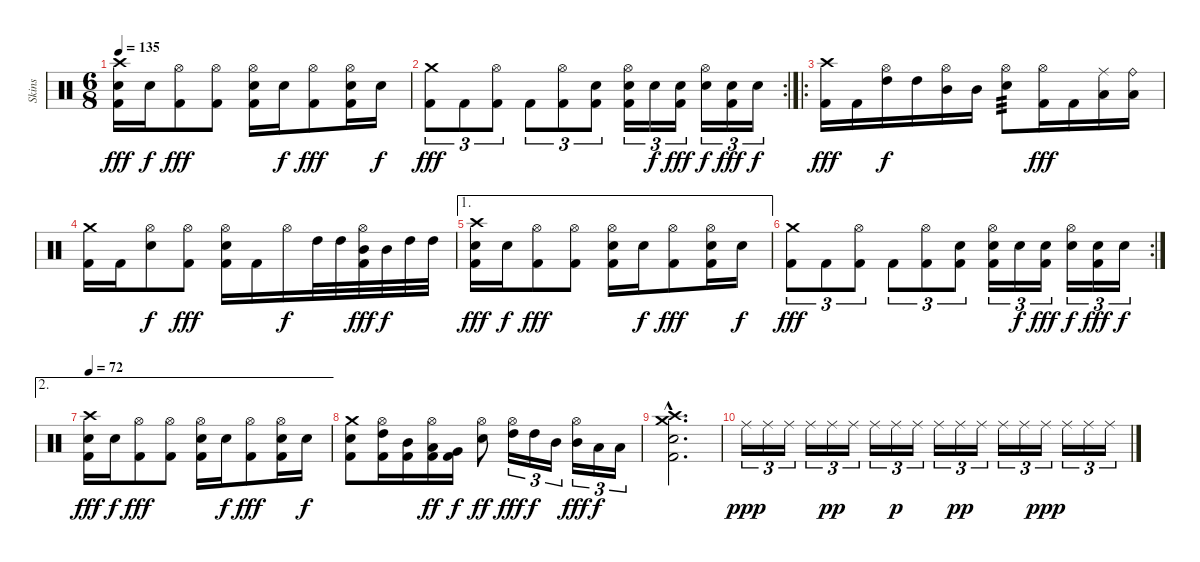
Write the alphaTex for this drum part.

\track ("Skins" "Skins") {instrument percussion}
\staff {score}
\articulation defaults
\ts (6 8)
\tempo 135
\clef neutral
\ks c
("Crash high (hit)" "Snare (hit) 2" "Kick (hit) 2").16{dy fff} "Snare (hit) 2".16{dy f} ("Hi-Hat (open)" "Kick (hit) 2").8{dy fff} ("Hi-Hat (open)" "Kick (hit) 2").8 ("Hi-Hat (open)" "Snare (hit) 2" "Kick (hit) 2").16 "Snare (hit) 2".16{dy f} ("Hi-Hat (open)" "Kick (hit) 2").8{dy fff} ("Hi-Hat (open)" "Snare (hit) 2" "Kick (hit) 2").16 "Snare (hit) 2".16{dy f} |
\rc 2
("Crash medium (hit)" "Kick (hit) 2").8{tu (3 2) dy fff} "Kick (hit) 2".8{tu (3 2)} ("Hi-Hat (open)" "Kick (hit) 2").8{tu (3 2)} "Kick (hit) 2".8{tu (3 2)} ("Hi-Hat (open)" "Kick (hit) 2").8{tu (3 2)} ("Snare (hit) 2" "Kick (hit) 2").8{tu (3 2)} ("Hi-Hat (open)" "Snare (hit) 2" "Kick (hit) 2").16{tu (3 2)} "Snare (hit) 2".16{tu (3 2) dy f} ("Snare (hit) 2" "Kick (hit) 2").16{tu (3 2) dy fff} ("Hi-Hat (open)" "Snare (hit) 2").16{tu (3 2) dy f} ("Snare (hit) 2" "Kick (hit) 2").16{tu (3 2) dy fff} "Snare (hit) 2".16{tu (3 2) dy f} |
\ro
("Crash high (hit)" "Kick (hit) 2").16{dy fff} "Kick (hit) 2".16 ("Hi-Hat (open)" "High Tom (hit)").16{dy f} "High Tom (hit)".16 ("Hi-Hat (open)" "Mid Tom (hit)").16 "Mid Tom (hit)".16 ("Hi-Hat (open)" "Snare (hit) 2").8{tp 3} ("Hi-Hat (open)" "Kick (hit) 2").16{dy fff} "Kick (hit) 2".16 ("Ride (middle)" "Low Tom (hit)").16 ("Ride (bell)" "Low Tom (hit)").16 |
("Crash medium (hit)" "Kick (hit) 2").16 "Kick (hit) 2".16 ("Hi-Hat (open)" "Snare (hit) 2").8{dy f} ("Hi-Hat (open)" "Kick (hit) 2").8{dy fff} ("Hi-Hat (open)" "Snare (hit) 2" "Kick (hit) 2").16 "Kick (hit) 2".16 "Hi-Hat (open)".16{dy f} "High Tom (hit)".32 "High Tom (hit)".32 ("Hi-Hat (open)" "Mid Tom (hit)" "Kick (hit) 2").32{dy fff} "Mid Tom (hit)".32{dy f} "High Tom (hit)".32 "High Tom (hit)".32 |
\ae 1
("Crash high (hit)" "Snare (hit) 2" "Kick (hit) 2").16{dy fff} "Snare (hit) 2".16{dy f} ("Hi-Hat (open)" "Kick (hit) 2").8{dy fff} ("Hi-Hat (open)" "Kick (hit) 2").8 ("Hi-Hat (open)" "Snare (hit) 2" "Kick (hit) 2").16 "Snare (hit) 2".16{dy f} ("Hi-Hat (open)" "Kick (hit) 2").8{dy fff} ("Hi-Hat (open)" "Snare (hit) 2" "Kick (hit) 2").16 "Snare (hit) 2".16{dy f} |
\rc 2
("Crash medium (hit)" "Kick (hit) 2").8{tu (3 2) dy fff} "Kick (hit) 2".8{tu (3 2)} ("Hi-Hat (open)" "Kick (hit) 2").8{tu (3 2)} "Kick (hit) 2".8{tu (3 2)} ("Hi-Hat (open)" "Kick (hit) 2").8{tu (3 2)} ("Snare (hit) 2" "Kick (hit) 2").8{tu (3 2)} ("Hi-Hat (open)" "Snare (hit) 2" "Kick (hit) 2").16{tu (3 2)} "Snare (hit) 2".16{tu (3 2) dy f} ("Snare (hit) 2" "Kick (hit) 2").16{tu (3 2) dy fff} ("Hi-Hat (open)" "Snare (hit) 2").16{tu (3 2) dy f} ("Snare (hit) 2" "Kick (hit) 2").16{tu (3 2) dy fff} "Snare (hit) 2".16{tu (3 2) dy f} |
\ae 2
\tempo 72
("Crash high (hit)" "Snare (hit) 2" "Kick (hit) 2").16{dy fff} "Snare (hit) 2".16{dy f} ("Hi-Hat (open)" "Kick (hit) 2").8{dy fff} ("Hi-Hat (open)" "Kick (hit) 2").8 ("Hi-Hat (open)" "Snare (hit) 2" "Kick (hit) 2").16 "Snare (hit) 2".16{dy f} ("Hi-Hat (open)" "Kick (hit) 2").8{dy fff} ("Hi-Hat (open)" "Snare (hit) 2" "Kick (hit) 2").16 "Snare (hit) 2".16{dy f} |
("Crash medium (hit)" "Snare (hit) 2" "Kick (hit) 2").8 ("Hi-Hat (open)" "High Tom (hit)" "Kick (hit) 2").16 ("Mid Tom (hit)" "Kick (hit) 2").16 ("Hi-Hat (open)" "Low Tom (hit)" "Kick (hit) 2").16{dy ff} ("Very Low Tom (hit)" "Kick (hit) 2").16{dy f} ("Hi-Hat (open)" "Snare (hit) 2").8{dy ff} ("Hi-Hat (open)" "High Tom (hit)").16{tu (3 2) dy fff} "High Tom (hit)".16{tu (3 2) dy f} "Mid Tom (hit)".16{tu (3 2)} ("Hi-Hat (open)" "Mid Tom (hit)").16{tu (3 2) dy fff} "Low Tom (hit)".16{tu (3 2) dy f} "Low Tom (hit)".16{tu (3 2)} |
("Crash medium (hit)"{hac} "Crash high (hit)"{hac} "Snare (hit) 2"{hac} "Kick (hit) 2"{hac}).2{d} |
"Ride (middle)".16{tu (3 2) dy ppp} "Ride (middle)".16{tu (3 2)} "Ride (middle)".16{tu (3 2)} "Ride (middle)".16{tu (3 2)} "Ride (middle)".16{tu (3 2) dy pp} "Ride (middle)".16{tu (3 2)} "Ride (middle)".16{tu (3 2)} "Ride (middle)".16{tu (3 2) dy p} "Ride (middle)".16{tu (3 2)} "Ride (middle)".16{tu (3 2)} "Ride (middle)".16{tu (3 2) dy pp} "Ride (middle)".16{tu (3 2)} "Ride (middle)".16{tu (3 2)} "Ride (middle)".16{tu (3 2)} "Ride (middle)".16{tu (3 2) dy ppp} "Ride (middle)".16{tu (3 2)} "Ride (middle)".16{tu (3 2)} "Ride (middle)".16{tu (3 2)}
